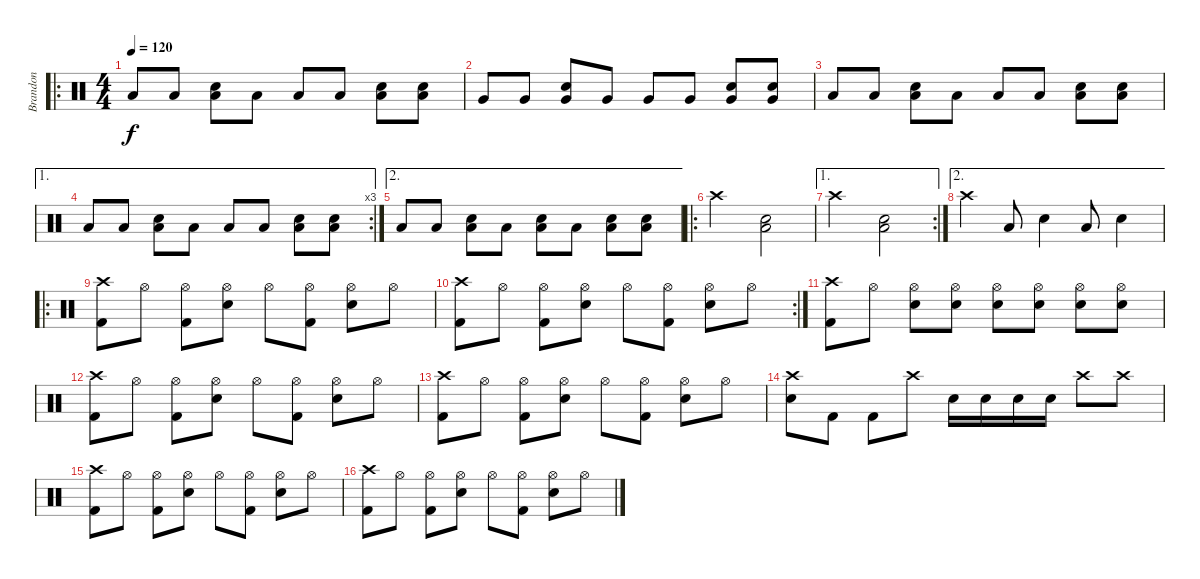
\track ("Brandon" "Brandon") {instrument percussion}
\staff {score}
\articulation defaults
\ro
\ts (4 4)
\tempo 120
\clef neutral
\ks c "Low Tom (hit)".8{dy f} "Low Tom (hit)".8
("Snare (hit) 2" "Low Tom (hit)").8 "Low Tom (hit)".8 "Low Tom (hit)".8 "Low Tom (hit)".8 ("Snare (hit) 2" "Low Tom (hit)").8 ("Snare (hit) 2" "Low Tom (hit)").8 |
"Very Low Tom (hit)".8 "Very Low Tom (hit)".8 ("Snare (hit) 2" "Very Low Tom (hit)").8 "Very Low Tom (hit)".8 "Very Low Tom (hit)".8 "Very Low Tom (hit)".8 ("Snare (hit) 2" "Very Low Tom (hit)").8 ("Snare (hit) 2" "Very Low Tom (hit)").8 |
"Low Floor Tom (hit)".8 "Low Floor Tom (hit)".8 ("Snare (hit) 2" "Low Floor Tom (hit)").8 "Low Floor Tom (hit)".8 "Low Floor Tom (hit)".8 "Low Floor Tom (hit)".8 ("Snare (hit) 2" "Low Floor Tom (hit)").8 ("Snare (hit) 2" "Low Floor Tom (hit)").8 |
\ae 1
\rc 3 "Low Floor Tom (hit)".8 "Low Floor Tom (hit)".8
("Snare (hit) 2" "Low Floor Tom (hit)").8 "Low Floor Tom (hit)".8 "Low Floor Tom (hit)".8 "Low Floor Tom (hit)".8 ("Snare (hit) 2" "Low Floor Tom (hit)").8 ("Snare (hit) 2" "Low Floor Tom (hit)").8 |
\ae 2 "Low Floor Tom (hit)".8 "Low Floor Tom (hit)".8
("Low Floor Tom (hit)" "Snare (hit) 2").8 "Low Floor Tom (hit)".8 ("Low Floor Tom (hit)" "Snare (hit) 2").8 "Low Floor Tom (hit)".8 ("Low Floor Tom (hit)" "Snare (hit) 2").8 ("Low Floor Tom (hit)" "Snare (hit) 2").8 |
\ro "Crash high (hit)".2
("Snare (hit) 2" "Low Floor Tom (hit)").2 |
\ae 1
\rc 2 "Crash high (hit)".2
("Snare (hit) 2" "Low Floor Tom (hit)").2 |
\ae 2 "Crash high (hit)".4 "Low Floor Tom (hit)".8 "Snare (hit) 2".4 "Low Floor Tom (hit)".8 "Snare (hit) 2".4
|
\ro
("Crash high (hit)" "Kick (hit) 2").8 "Hi-Hat (open)".8 ("Hi-Hat (open)" "Kick (hit) 2").8 ("Hi-Hat (open)" "Snare (hit) 2").8 "Hi-Hat (open)".8 ("Hi-Hat (open)" "Kick (hit) 2").8 ("Hi-Hat (open)" "Snare (hit) 2").8 "Hi-Hat (open)".8 |
\rc 2
("Crash high (hit)" "Kick (hit) 2").8 "Hi-Hat (open)".8 ("Hi-Hat (open)" "Kick (hit) 2").8 ("Hi-Hat (open)" "Snare (hit) 2").8 "Hi-Hat (open)".8 ("Hi-Hat (open)" "Kick (hit) 2").8 ("Hi-Hat (open)" "Snare (hit) 2").8 "Hi-Hat (open)".8 |
("Crash high (hit)" "Kick (hit) 2").8 "Hi-Hat (open)".8 ("Hi-Hat (open)" "Snare (hit) 2").8 ("Hi-Hat (open)" "Snare (hit) 2").8 ("Hi-Hat (open)" "Snare (hit) 2").8 ("Hi-Hat (open)" "Snare (hit) 2").8 ("Hi-Hat (open)" "Snare (hit) 2").8 ("Hi-Hat (open)" "Snare (hit) 2").8 |
("Crash high (hit)" "Kick (hit) 2").8 "Hi-Hat (open)".8 ("Hi-Hat (open)" "Kick (hit) 2").8 ("Hi-Hat (open)" "Snare (hit) 2").8 "Hi-Hat (open)".8 ("Hi-Hat (open)" "Kick (hit) 2").8 ("Hi-Hat (open)" "Snare (hit) 2").8 "Hi-Hat (open)".8 |
("Crash high (hit)" "Kick (hit) 2").8 "Hi-Hat (open)".8 ("Hi-Hat (open)" "Kick (hit) 2").8 ("Hi-Hat (open)" "Snare (hit) 2").8 "Hi-Hat (open)".8 ("Hi-Hat (open)" "Kick (hit) 2").8 ("Hi-Hat (open)" "Snare (hit) 2").8 "Hi-Hat (open)".8 |
("Snare (hit) 2" "Crash high (hit)").8 "Kick (hit) 2".8 "Kick (hit) 2".8 "Crash high (hit)".8 "Snare (hit) 2".16 "Snare (hit) 2".16 "Snare (hit) 2".16 "Snare (hit) 2".16 "Crash high (hit)".8 "Crash high (hit)".8 |
("Crash high (hit)" "Kick (hit) 2").8 "Hi-Hat (open)".8 ("Hi-Hat (open)" "Kick (hit) 2").8 ("Hi-Hat (open)" "Snare (hit) 2").8 "Hi-Hat (open)".8 ("Hi-Hat (open)" "Kick (hit) 2").8 ("Hi-Hat (open)" "Snare (hit) 2").8 "Hi-Hat (open)".8 |
("Crash high (hit)" "Kick (hit) 2").8 "Hi-Hat (open)".8 ("Hi-Hat (open)" "Kick (hit) 2").8 ("Hi-Hat (open)" "Snare (hit) 2").8 "Hi-Hat (open)".8 ("Hi-Hat (open)" "Kick (hit) 2").8 ("Hi-Hat (open)" "Snare (hit) 2").8 "Hi-Hat (open)".8
